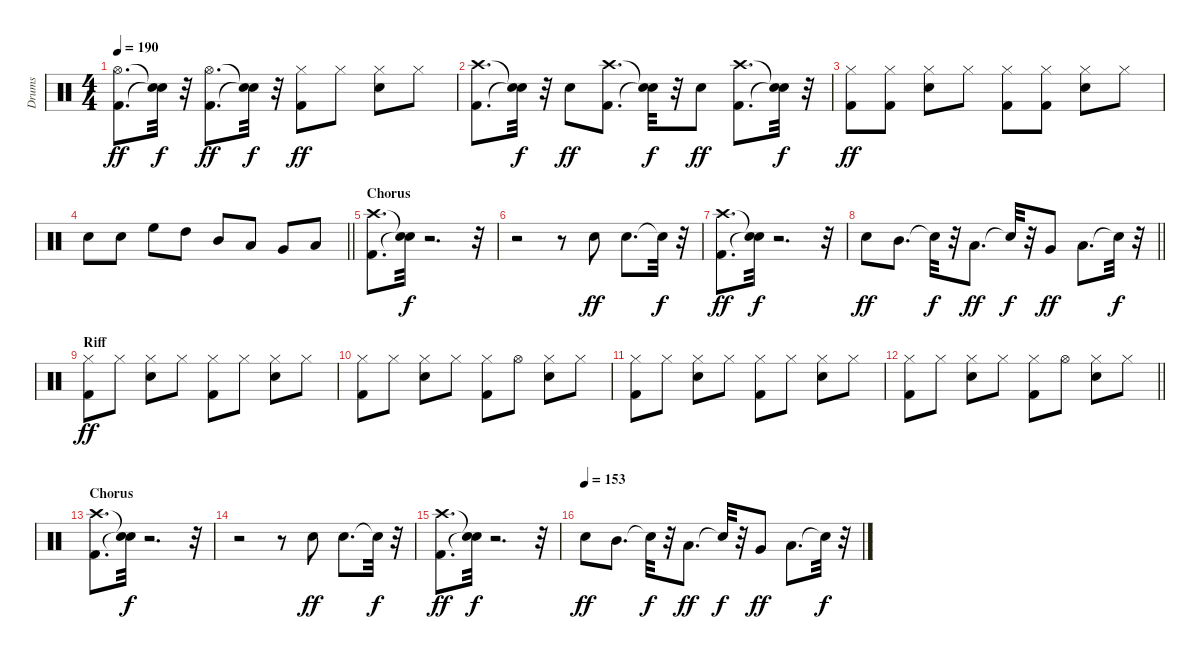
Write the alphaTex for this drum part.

\track ("Drums" "Drums") {instrument percussion}
\staff {score}
\articulation defaults
\ts (4 4)
\tempo 190
\clef neutral
\ks c
("Kick (hit) 2" "Hi-Hat (open)").8{d dy ff} ("Snare (hit)"{t} "Snare (hit)"{t}).32{dy f} r.32 ("Kick (hit) 2" "Hi-Hat (open)").8{d dy ff} ("Snare (hit)"{t} "Snare (hit)"{t}).32{dy f} r.32 ("Kick (hit) 2" "Hi-Hat (closed)").8{dy ff} "Hi-Hat (closed)".8 ("Snare (hit) 2" "Hi-Hat (closed)").8 "Hi-Hat (closed)".8 |
("Kick (hit) 2" "Crash high (hit)").8{d} ("Snare (hit)"{t} "Snare (hit)"{t}).32{dy f} r.32 "Snare (hit) 2".8{dy ff} ("Kick (hit) 2" "Crash high (hit)").8{d} ("Snare (hit)"{t} "Snare (hit)"{t}).32{dy f} r.32 "Snare (hit) 2".8{dy ff} ("Kick (hit) 2" "Crash high (hit)").8{d} ("Snare (hit)"{t} "Snare (hit)"{t}).32{dy f} r.32 |
("Kick (hit) 2" "Hi-Hat (closed)").8{dy ff} ("Kick (hit) 2" "Hi-Hat (closed)").8 ("Snare (hit) 2" "Hi-Hat (closed)").8 "Hi-Hat (closed)".8 ("Kick (hit) 2" "Hi-Hat (closed)").8 ("Kick (hit) 2" "Hi-Hat (closed)").8 ("Snare (hit) 2" "Hi-Hat (closed)").8 "Hi-Hat (closed)".8 |
\barLineRight lightlight "Snare (hit) 2".8 "Snare (hit) 2".8 "High Floor Tom (hit)".8 "High Tom (hit)".8 "Mid Tom (hit)".8 "Low Tom (hit)".8 "Very Low Tom (hit)".8 "Low Floor Tom (hit)".8
|
\section ("" "Chorus")
("Kick (hit) 2" "Crash high (hit)").8{d} ("Snare (hit)"{t} "Snare (hit)"{t}).32{dy f} r.2{d} r.32 |
r.2 r.8 "Snare (hit) 2".8{dy ff} "Snare (hit) 2".8{d} "Snare (hit)"{t}.32{dy f} r.32 |
("Kick (hit) 2" "Crash high (hit)").8{d dy ff} ("Snare (hit)"{t} "Snare (hit)"{t}).32{dy f} r.2{d} r.32 |
\barLineRight lightlight "Snare (hit) 2".8{dy ff} "Mid Tom (hit)".8{d} "Snare (hit)"{t}.32{dy f}
r.32 "Low Tom (hit)".8{d dy ff} "Snare (hit)"{t}.32{dy f} r.32 "Very Low Tom (hit)".8{dy ff} "Low Floor Tom (hit)".8{d} "Snare (hit)"{t}.32{dy f} r.32 |
\section ("" "Riff")
("Kick (hit) 2" "Hi-Hat (closed)").8{dy ff} "Hi-Hat (closed)".8 ("Snare (hit) 2" "Hi-Hat (closed)").8 "Hi-Hat (closed)".8 ("Kick (hit) 2" "Hi-Hat (closed)").8 "Hi-Hat (closed)".8 ("Snare (hit) 2" "Hi-Hat (closed)").8 "Hi-Hat (closed)".8 |
("Kick (hit) 2" "Hi-Hat (closed)").8 "Hi-Hat (closed)".8 ("Snare (hit) 2" "Hi-Hat (closed)").8 "Hi-Hat (closed)".8 ("Kick (hit) 2" "Hi-Hat (closed)").8 "Hi-Hat (open)".8 ("Snare (hit) 2" "Hi-Hat (closed)").8 "Hi-Hat (closed)".8 |
("Kick (hit) 2" "Hi-Hat (closed)").8 "Hi-Hat (closed)".8 ("Snare (hit) 2" "Hi-Hat (closed)").8 "Hi-Hat (closed)".8 ("Kick (hit) 2" "Hi-Hat (closed)").8 "Hi-Hat (closed)".8 ("Snare (hit) 2" "Hi-Hat (closed)").8 "Hi-Hat (closed)".8 |
\barLineRight lightlight
("Kick (hit) 2" "Hi-Hat (closed)").8 "Hi-Hat (closed)".8 ("Snare (hit) 2" "Hi-Hat (closed)").8 "Hi-Hat (closed)".8 ("Kick (hit) 2" "Hi-Hat (closed)").8 "Hi-Hat (open)".8 ("Snare (hit) 2" "Hi-Hat (closed)").8 "Hi-Hat (closed)".8 |
\section ("" "Chorus")
("Kick (hit) 2" "Crash high (hit)").8{d} ("Snare (hit)"{t} "Snare (hit)"{t}).32{dy f} r.2{d} r.32 |
r.2 r.8 "Snare (hit) 2".8{dy ff} "Snare (hit) 2".8{d} "Snare (hit)"{t}.32{dy f} r.32 |
("Kick (hit) 2" "Crash high (hit)").8{d dy ff} ("Snare (hit)"{t} "Snare (hit)"{t}).32{dy f} r.2{d} r.32 |
\tempo (153)
"Snare (hit) 2".8{dy ff} "Mid Tom (hit)".8{d} "Snare (hit)"{t}.32{dy f} r.32 "Low Tom (hit)".8{d dy ff} "Snare (hit)"{t}.32{dy f} r.32 "Very Low Tom (hit)".8{dy ff} "Low Floor Tom (hit)".8{d} "Snare (hit)"{t}.32{dy f} r.32
